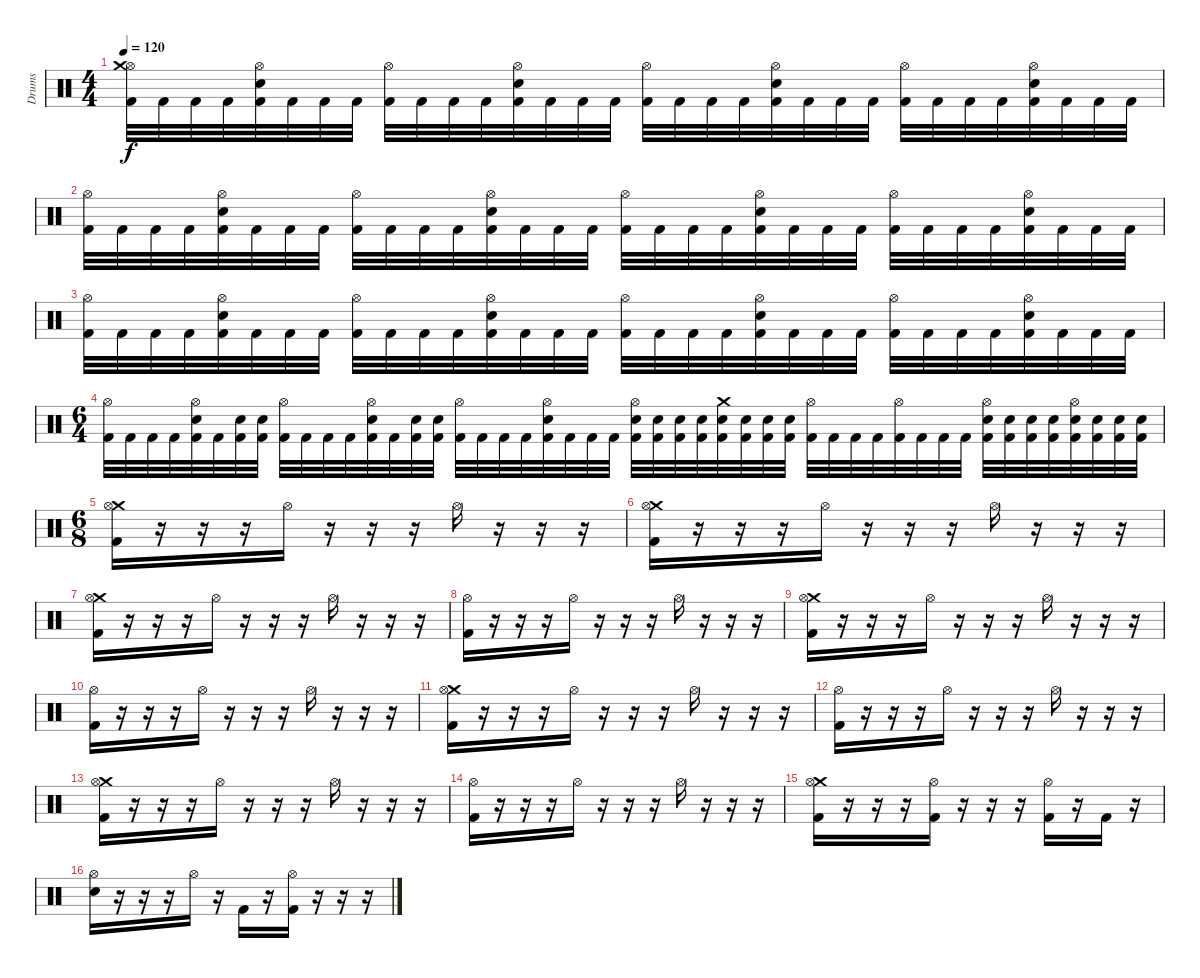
\track ("Drums" "Drums") {instrument percussion}
\staff {score}
\articulation defaults
\ts (4 4)
\tempo 120
\clef neutral
\ks c
("Hi-Hat (open)" "Crash medium (hit)" "Kick (hit) 2").32{dy f} "Kick (hit) 2".32 "Kick (hit) 2".32 "Kick (hit) 2".32 ("Hi-Hat (open)" "Electric Snare (hit)" "Kick (hit) 2").32 "Kick (hit) 2".32 "Kick (hit) 2".32 "Kick (hit) 2".32 ("Hi-Hat (open)" "Kick (hit) 2").32 "Kick (hit) 2".32 "Kick (hit) 2".32 "Kick (hit) 2".32 ("Hi-Hat (open)" "Electric Snare (hit)" "Kick (hit) 2").32 "Kick (hit) 2".32 "Kick (hit) 2".32 "Kick (hit) 2".32 ("Hi-Hat (open)" "Kick (hit) 2").32 "Kick (hit) 2".32 "Kick (hit) 2".32 "Kick (hit) 2".32 ("Hi-Hat (open)" "Electric Snare (hit)" "Kick (hit) 2").32 "Kick (hit) 2".32 "Kick (hit) 2".32 "Kick (hit) 2".32 ("Hi-Hat (open)" "Kick (hit) 2").32 "Kick (hit) 2".32 "Kick (hit) 2".32 "Kick (hit) 2".32 ("Hi-Hat (open)" "Electric Snare (hit)" "Kick (hit) 2").32 "Kick (hit) 2".32 "Kick (hit) 2".32 "Kick (hit) 2".32 |
("Hi-Hat (open)" "Kick (hit) 2").32 "Kick (hit) 2".32 "Kick (hit) 2".32 "Kick (hit) 2".32 ("Hi-Hat (open)" "Electric Snare (hit)" "Kick (hit) 2").32 "Kick (hit) 2".32 "Kick (hit) 2".32 "Kick (hit) 2".32 ("Hi-Hat (open)" "Kick (hit) 2").32 "Kick (hit) 2".32 "Kick (hit) 2".32 "Kick (hit) 2".32 ("Hi-Hat (open)" "Electric Snare (hit)" "Kick (hit) 2").32 "Kick (hit) 2".32 "Kick (hit) 2".32 "Kick (hit) 2".32 ("Hi-Hat (open)" "Kick (hit) 2").32 "Kick (hit) 2".32 "Kick (hit) 2".32 "Kick (hit) 2".32 ("Hi-Hat (open)" "Electric Snare (hit)" "Kick (hit) 2").32 "Kick (hit) 2".32 "Kick (hit) 2".32 "Kick (hit) 2".32 ("Hi-Hat (open)" "Kick (hit) 2").32 "Kick (hit) 2".32 "Kick (hit) 2".32 "Kick (hit) 2".32 ("Hi-Hat (open)" "Electric Snare (hit)" "Kick (hit) 2").32 "Kick (hit) 2".32 "Kick (hit) 2".32 "Kick (hit) 2".32 |
("Hi-Hat (open)" "Kick (hit) 2").32 "Kick (hit) 2".32 "Kick (hit) 2".32 "Kick (hit) 2".32 ("Hi-Hat (open)" "Electric Snare (hit)" "Kick (hit) 2").32 "Kick (hit) 2".32 "Kick (hit) 2".32 "Kick (hit) 2".32 ("Hi-Hat (open)" "Kick (hit) 2").32 "Kick (hit) 2".32 "Kick (hit) 2".32 "Kick (hit) 2".32 ("Hi-Hat (open)" "Electric Snare (hit)" "Kick (hit) 2").32 "Kick (hit) 2".32 "Kick (hit) 2".32 "Kick (hit) 2".32 ("Hi-Hat (open)" "Kick (hit) 2").32 "Kick (hit) 2".32 "Kick (hit) 2".32 "Kick (hit) 2".32 ("Hi-Hat (open)" "Electric Snare (hit)" "Kick (hit) 2").32 "Kick (hit) 2".32 "Kick (hit) 2".32 "Kick (hit) 2".32 ("Hi-Hat (open)" "Kick (hit) 2").32 "Kick (hit) 2".32 "Kick (hit) 2".32 "Kick (hit) 2".32 ("Hi-Hat (open)" "Electric Snare (hit)" "Kick (hit) 2").32 "Kick (hit) 2".32 "Kick (hit) 2".32 "Kick (hit) 2".32 |
\ts (6 4)
("Hi-Hat (open)" "Kick (hit) 2").32 "Kick (hit) 2".32 "Kick (hit) 2".32 "Kick (hit) 2".32 ("Hi-Hat (open)" "Electric Snare (hit)" "Kick (hit) 2").32 "Kick (hit) 2".32 ("Electric Snare (hit)" "Kick (hit) 2").32 ("Electric Snare (hit)" "Kick (hit) 2").32 ("Hi-Hat (open)" "Kick (hit) 2").32 "Kick (hit) 2".32 "Kick (hit) 2".32 "Kick (hit) 2".32 ("Hi-Hat (open)" "Electric Snare (hit)" "Kick (hit) 2").32 "Kick (hit) 2".32 ("Electric Snare (hit)" "Kick (hit) 2").32 ("Electric Snare (hit)" "Kick (hit) 2").32 ("Hi-Hat (open)" "Kick (hit) 2").32 "Kick (hit) 2".32 "Kick (hit) 2".32 "Kick (hit) 2".32 ("Hi-Hat (open)" "Electric Snare (hit)" "Kick (hit) 2").32 "Kick (hit) 2".32 "Kick (hit) 2".32 "Kick (hit) 2".32 ("Hi-Hat (open)" "Electric Snare (hit)" "Kick (hit) 2").32 ("Electric Snare (hit)" "Kick (hit) 2").32 ("Electric Snare (hit)" "Kick (hit) 2").32 ("Electric Snare (hit)" "Kick (hit) 2").32 ("Crash medium (hit)" "Electric Snare (hit)" "Kick (hit) 2").32 ("Electric Snare (hit)" "Kick (hit) 2").32 ("Electric Snare (hit)" "Kick (hit) 2").32 ("Electric Snare (hit)" "Kick (hit) 2").32 ("Hi-Hat (open)" "Kick (hit) 2").32 "Kick (hit) 2".32 "Kick (hit) 2".32 "Kick (hit) 2".32 ("Hi-Hat (open)" "Kick (hit) 2").32 "Kick (hit) 2".32 "Kick (hit) 2".32 "Kick (hit) 2".32 ("Hi-Hat (open)" "Electric Snare (hit)" "Kick (hit) 2").32 ("Electric Snare (hit)" "Kick (hit) 2").32 ("Electric Snare (hit)" "Kick (hit) 2").32 ("Electric Snare (hit)" "Kick (hit) 2").32 ("Hi-Hat (open)" "Electric Snare (hit)" "Kick (hit) 2").32 ("Electric Snare (hit)" "Kick (hit) 2").32 ("Electric Snare (hit)" "Kick (hit) 2").32 ("Electric Snare (hit)" "Kick (hit) 2").32 |
\ts (6 8)
("Crash medium (hit)" "Hi-Hat (open)" "Kick (hit) 2").16 r.16 r.16 r.16 "Hi-Hat (open)".16 r.16 r.16 r.16 "Hi-Hat (open)".16 r.16 r.16 r.16 |
("Crash medium (hit)" "Hi-Hat (open)" "Kick (hit) 2").16 r.16 r.16 r.16 "Hi-Hat (open)".16 r.16 r.16 r.16 "Hi-Hat (open)".16 r.16 r.16 r.16 |
("Crash medium (hit)" "Hi-Hat (open)" "Kick (hit) 2").16 r.16 r.16 r.16 "Hi-Hat (open)".16 r.16 r.16 r.16 "Hi-Hat (open)".16 r.16 r.16 r.16 |
("Hi-Hat (open)" "Kick (hit) 2").16 r.16 r.16 r.16 "Hi-Hat (open)".16 r.16 r.16 r.16 "Hi-Hat (open)".16 r.16 r.16 r.16 |
("Crash medium (hit)" "Hi-Hat (open)" "Kick (hit) 2").16 r.16 r.16 r.16 "Hi-Hat (open)".16 r.16 r.16 r.16 "Hi-Hat (open)".16 r.16 r.16 r.16 |
("Hi-Hat (open)" "Kick (hit) 2").16 r.16 r.16 r.16 "Hi-Hat (open)".16 r.16 r.16 r.16 "Hi-Hat (open)".16 r.16 r.16 r.16 |
("Crash medium (hit)" "Hi-Hat (open)" "Kick (hit) 2").16 r.16 r.16 r.16 "Hi-Hat (open)".16 r.16 r.16 r.16 "Hi-Hat (open)".16 r.16 r.16 r.16 |
("Hi-Hat (open)" "Kick (hit) 2").16 r.16 r.16 r.16 "Hi-Hat (open)".16 r.16 r.16 r.16 "Hi-Hat (open)".16 r.16 r.16 r.16 |
("Crash medium (hit)" "Hi-Hat (open)" "Kick (hit) 2").16 r.16 r.16 r.16 "Hi-Hat (open)".16 r.16 r.16 r.16 "Hi-Hat (open)".16 r.16 r.16 r.16 |
("Hi-Hat (open)" "Kick (hit) 2").16 r.16 r.16 r.16 "Hi-Hat (open)".16 r.16 r.16 r.16 "Hi-Hat (open)".16 r.16 r.16 r.16 |
("Crash medium (hit)" "Hi-Hat (open)" "Kick (hit) 2").16 r.16 r.16 r.16 ("Hi-Hat (open)" "Kick (hit) 2").16 r.16 r.16 r.16 ("Hi-Hat (open)" "Kick (hit) 2").16 r.16 "Kick (hit) 2".16 r.16 |
("Hi-Hat (open)" "Electric Snare (hit)").16 r.16 r.16 r.16 "Hi-Hat (open)".16 r.16 "Kick (hit) 2".16 r.16 ("Hi-Hat (open)" "Kick (hit) 2").16 r.16 r.16 r.16
